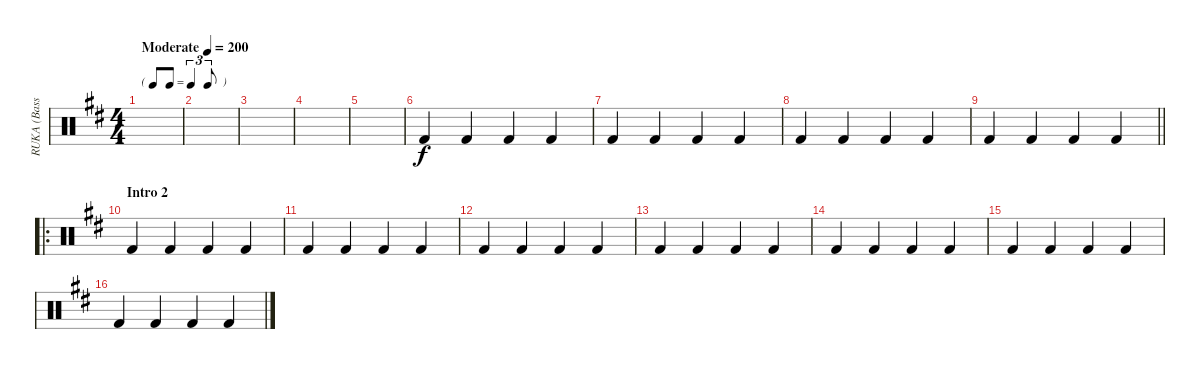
\track ("RUKA (Bass)" "RUKA (Bass") {instrument percussion}
\staff {score}
\articulation defaults
\ts (4 4)
\tf triplet8th
\tempo (200 "Moderate")
\clef neutral
\ks d
|
|
|
|
|
"Kick (hit) 2".4 "Kick (hit) 2".4 "Kick (hit) 2".4 "Kick (hit) 2".4 |
"Kick (hit) 2".4 "Kick (hit) 2".4 "Kick (hit) 2".4 "Kick (hit) 2".4 |
"Kick (hit) 2".4 "Kick (hit) 2".4 "Kick (hit) 2".4 "Kick (hit) 2".4 |
\barLineRight lightlight "Kick (hit) 2".4 "Kick (hit) 2".4 "Kick (hit) 2".4 "Kick (hit) 2".4
|
\ro
\section ("" "Intro 2")
"Kick (hit) 2".4 "Kick (hit) 2".4 "Kick (hit) 2".4 "Kick (hit) 2".4 |
"Kick (hit) 2".4 "Kick (hit) 2".4 "Kick (hit) 2".4 "Kick (hit) 2".4 |
"Kick (hit) 2".4 "Kick (hit) 2".4 "Kick (hit) 2".4 "Kick (hit) 2".4 |
"Kick (hit) 2".4 "Kick (hit) 2".4 "Kick (hit) 2".4 "Kick (hit) 2".4 |
"Kick (hit) 2".4 "Kick (hit) 2".4 "Kick (hit) 2".4 "Kick (hit) 2".4 |
"Kick (hit) 2".4 "Kick (hit) 2".4 "Kick (hit) 2".4 "Kick (hit) 2".4 |
"Kick (hit) 2".4 "Kick (hit) 2".4 "Kick (hit) 2".4 "Kick (hit) 2".4
